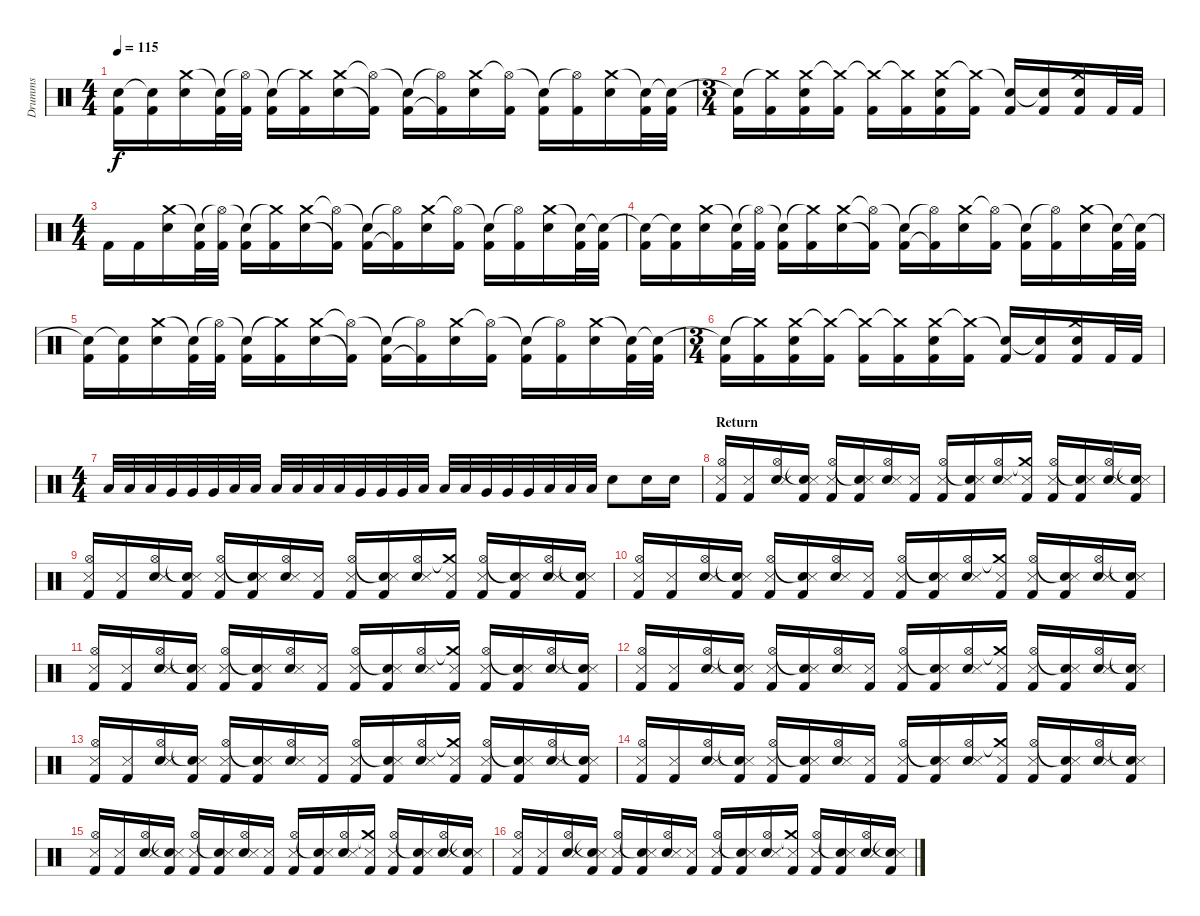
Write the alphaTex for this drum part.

\track ("Drumms" "Drumms") {instrument percussion}
\staff {score}
\articulation defaults
\ts (4 4)
\tempo 115
\clef neutral
\ks c
("Snare (hit)"{t} "Kick (hit) 2").16{dy f} ("Snare (hit)"{t} "Kick (hit) 2").16 ("Crash medium (hit)" "Electric Snare (hit)").16 ("Snare (hit)"{t} "Kick (hit) 2").32 ("Hi-Hat (open)"{t} "Kick (hit) 2").32 ("Snare (hit)"{t} "Kick (hit) 2").16 ("Crash medium (hit)"{t} "Kick (hit) 2").16 ("Crash medium (hit)" "Electric Snare (hit)").16 ("Hi-Hat (open)"{t} "Kick (hit) 2"{t}).16 ("Snare (hit)"{t} "Kick (hit) 2").16 ("Hi-Hat (open)"{t} "Kick (hit) 2"{t}).16 ("Crash medium (hit)" "Electric Snare (hit)").16 ("Hi-Hat (open)"{t} "Kick (hit) 2").16 ("Snare (hit)"{t} "Kick (hit) 2").16 ("Hi-Hat (open)"{t} "Kick (hit) 2").16 ("Crash medium (hit)" "Electric Snare (hit)").16 ("Snare (hit)"{t} "Kick (hit) 2").32 ("Snare (hit)"{t} "Kick (hit) 2").32 |
\ts (3 4)
("Snare (hit)"{t} "Kick (hit) 2").16 ("Crash medium (hit)"{t} "Kick (hit) 2").16 ("Crash medium (hit)" "Kick (hit) 2" "Electric Snare (hit)").16 ("Crash medium (hit)"{t} "Kick (hit) 2").16 ("Crash medium (hit)"{t} "Kick (hit) 2").16 ("Crash medium (hit)"{t} "Kick (hit) 2").16 ("Crash medium (hit)" "Kick (hit) 2" "Electric Snare (hit)").16 ("Crash medium (hit)"{t} "Kick (hit) 2").16 ("Snare (hit)"{t} "Kick (hit) 2").16 ("Snare (hit)"{t} "Kick (hit) 2").16 ("Crash medium (hit)" "Kick (hit) 2" "Electric Snare (hit)").16 "Kick (hit) 2".32 "Kick (hit) 2".32 |
\ts (4 4)
"Kick (hit) 2".16 "Kick (hit) 2".16 ("Crash medium (hit)" "Electric Snare (hit)").16 ("Snare (hit)"{t} "Kick (hit) 2").32 ("Hi-Hat (open)"{t} "Kick (hit) 2").32 ("Snare (hit)"{t} "Kick (hit) 2").16 ("Crash medium (hit)"{t} "Kick (hit) 2").16 ("Crash medium (hit)" "Electric Snare (hit)").16 ("Hi-Hat (open)"{t} "Kick (hit) 2"{t}).16 ("Snare (hit)"{t} "Kick (hit) 2").16 ("Hi-Hat (open)"{t} "Kick (hit) 2"{t}).16 ("Crash medium (hit)" "Electric Snare (hit)").16 ("Hi-Hat (open)"{t} "Kick (hit) 2").16 ("Snare (hit)"{t} "Kick (hit) 2").16 ("Hi-Hat (open)"{t} "Kick (hit) 2").16 ("Crash medium (hit)" "Electric Snare (hit)").16 ("Snare (hit)"{t} "Kick (hit) 2").32 ("Snare (hit)"{t} "Kick (hit) 2").32 |
("Snare (hit)"{t} "Kick (hit) 2").16 ("Snare (hit)"{t} "Kick (hit) 2").16 ("Crash medium (hit)" "Electric Snare (hit)").16 ("Snare (hit)"{t} "Kick (hit) 2").32 ("Hi-Hat (open)"{t} "Kick (hit) 2").32 ("Snare (hit)"{t} "Kick (hit) 2").16 ("Crash medium (hit)"{t} "Kick (hit) 2").16 ("Crash medium (hit)" "Electric Snare (hit)").16 ("Hi-Hat (open)"{t} "Kick (hit) 2"{t}).16 ("Snare (hit)"{t} "Kick (hit) 2").16 ("Hi-Hat (open)"{t} "Kick (hit) 2"{t}).16 ("Crash medium (hit)" "Electric Snare (hit)").16 ("Hi-Hat (open)"{t} "Kick (hit) 2").16 ("Snare (hit)"{t} "Kick (hit) 2").16 ("Hi-Hat (open)"{t} "Kick (hit) 2").16 ("Crash medium (hit)" "Electric Snare (hit)").16 ("Snare (hit)"{t} "Kick (hit) 2").32 ("Snare (hit)"{t} "Kick (hit) 2").32 |
("Snare (hit)"{t} "Kick (hit) 2").16 ("Snare (hit)"{t} "Kick (hit) 2").16 ("Crash medium (hit)" "Electric Snare (hit)").16 ("Snare (hit)"{t} "Kick (hit) 2").32 ("Hi-Hat (open)"{t} "Kick (hit) 2").32 ("Snare (hit)"{t} "Kick (hit) 2").16 ("Crash medium (hit)"{t} "Kick (hit) 2").16 ("Crash medium (hit)" "Electric Snare (hit)").16 ("Hi-Hat (open)"{t} "Kick (hit) 2"{t}).16 ("Snare (hit)"{t} "Kick (hit) 2").16 ("Hi-Hat (open)"{t} "Kick (hit) 2"{t}).16 ("Crash medium (hit)" "Electric Snare (hit)").16 ("Hi-Hat (open)"{t} "Kick (hit) 2").16 ("Snare (hit)"{t} "Kick (hit) 2").16 ("Hi-Hat (open)"{t} "Kick (hit) 2").16 ("Crash medium (hit)" "Electric Snare (hit)").16 ("Snare (hit)"{t} "Kick (hit) 2").32 ("Snare (hit)"{t} "Kick (hit) 2").32 |
\ts (3 4)
("Snare (hit)"{t} "Kick (hit) 2").16 ("Crash medium (hit)"{t} "Kick (hit) 2").16 ("Crash medium (hit)" "Kick (hit) 2" "Electric Snare (hit)").16 ("Crash medium (hit)"{t} "Kick (hit) 2").16 ("Crash medium (hit)"{t} "Kick (hit) 2").16 ("Crash medium (hit)"{t} "Kick (hit) 2").16 ("Crash medium (hit)" "Kick (hit) 2" "Electric Snare (hit)").16 ("Crash medium (hit)"{t} "Kick (hit) 2").16 ("Snare (hit)"{t} "Kick (hit) 2").16 ("Snare (hit)"{t} "Kick (hit) 2").16 ("Crash medium (hit)" "Kick (hit) 2" "Electric Snare (hit)").16 "Kick (hit) 2".32 "Kick (hit) 2".32 |
\ts (4 4)
"Low Floor Tom (hit)".32 "Low Floor Tom (hit)".32 "Low Floor Tom (hit)".32 "Very Low Tom (hit)".32 "Very Low Tom (hit)".32 "Very Low Tom (hit)".32 "Low Tom (hit)".32 "Low Tom (hit)".32 "Low Tom (hit)".32 "Low Floor Tom (hit)".32 "Low Floor Tom (hit)".32 "Low Floor Tom (hit)".32 "Very Low Tom (hit)".32 "Very Low Tom (hit)".32 "Very Low Tom (hit)".32 "Low Tom (hit)".32 "Low Tom (hit)".32 "Low Tom (hit)".32 "Very Low Tom (hit)".32 "Very Low Tom (hit)".32 "Very Low Tom (hit)".32 "Low Tom (hit)".32 "Low Tom (hit)".32 "Low Tom (hit)".32 "Electric Snare (hit)".8 "Electric Snare (hit)".16 "Electric Snare (hit)".16 |
\section ("" "Return")
("Hi-Hat (open)" "Kick (hit) 2" "Snare (side stick) 3").16 ("Kick (hit) 2" "Snare (side stick) 3").16 ("Hi-Hat (open)" "Electric Snare (hit)" "Snare (side stick) 3").16 ("Snare (hit)"{t} "Kick (hit) 2" "Snare (side stick) 3").16 ("Hi-Hat (open)" "Kick (hit) 2" "Snare (side stick) 3").16 ("Snare (hit)"{t} "Kick (hit) 2" "Snare (side stick) 3").16 ("Hi-Hat (open)" "Electric Snare (hit)" "Snare (side stick) 3").16 ("Kick (hit) 2" "Snare (side stick) 3").16 ("Hi-Hat (open)" "Kick (hit) 2" "Snare (side stick) 3").16 ("Snare (hit)"{t} "Kick (hit) 2" "Snare (side stick) 3").16 ("Hi-Hat (open)" "Electric Snare (hit)" "Snare (side stick) 3").16 ("Crash medium (hit)"{t} "Kick (hit) 2" "Snare (side stick) 3").16 ("Hi-Hat (open)" "Kick (hit) 2" "Snare (side stick) 3").16 ("Snare (hit)"{t} "Kick (hit) 2" "Snare (side stick) 3").16 ("Hi-Hat (open)" "Electric Snare (hit)" "Snare (side stick) 3").16 ("Snare (hit)"{t} "Kick (hit) 2" "Snare (side stick) 3").16 |
("Hi-Hat (open)" "Kick (hit) 2" "Snare (side stick) 3").16 ("Kick (hit) 2" "Snare (side stick) 3").16 ("Hi-Hat (open)" "Electric Snare (hit)" "Snare (side stick) 3").16 ("Snare (hit)"{t} "Kick (hit) 2" "Snare (side stick) 3").16 ("Hi-Hat (open)" "Kick (hit) 2" "Snare (side stick) 3").16 ("Snare (hit)"{t} "Kick (hit) 2" "Snare (side stick) 3").16 ("Hi-Hat (open)" "Electric Snare (hit)" "Snare (side stick) 3").16 ("Kick (hit) 2" "Snare (side stick) 3").16 ("Hi-Hat (open)" "Kick (hit) 2" "Snare (side stick) 3").16 ("Snare (hit)"{t} "Kick (hit) 2" "Snare (side stick) 3").16 ("Hi-Hat (open)" "Electric Snare (hit)" "Snare (side stick) 3").16 ("Crash medium (hit)"{t} "Kick (hit) 2" "Snare (side stick) 3").16 ("Hi-Hat (open)" "Kick (hit) 2" "Snare (side stick) 3").16 ("Snare (hit)"{t} "Kick (hit) 2" "Snare (side stick) 3").16 ("Hi-Hat (open)" "Electric Snare (hit)" "Snare (side stick) 3").16 ("Snare (hit)"{t} "Kick (hit) 2" "Snare (side stick) 3").16 |
("Hi-Hat (open)" "Kick (hit) 2" "Snare (side stick) 3").16 ("Kick (hit) 2" "Snare (side stick) 3").16 ("Hi-Hat (open)" "Electric Snare (hit)" "Snare (side stick) 3").16 ("Snare (hit)"{t} "Kick (hit) 2" "Snare (side stick) 3").16 ("Hi-Hat (open)" "Kick (hit) 2" "Snare (side stick) 3").16 ("Snare (hit)"{t} "Kick (hit) 2" "Snare (side stick) 3").16 ("Hi-Hat (open)" "Electric Snare (hit)" "Snare (side stick) 3").16 ("Kick (hit) 2" "Snare (side stick) 3").16 ("Hi-Hat (open)" "Kick (hit) 2" "Snare (side stick) 3").16 ("Snare (hit)"{t} "Kick (hit) 2" "Snare (side stick) 3").16 ("Hi-Hat (open)" "Electric Snare (hit)" "Snare (side stick) 3").16 ("Crash medium (hit)"{t} "Kick (hit) 2" "Snare (side stick) 3").16 ("Hi-Hat (open)" "Kick (hit) 2" "Snare (side stick) 3").16 ("Snare (hit)"{t} "Kick (hit) 2" "Snare (side stick) 3").16 ("Hi-Hat (open)" "Electric Snare (hit)" "Snare (side stick) 3").16 ("Snare (hit)"{t} "Kick (hit) 2" "Snare (side stick) 3").16 |
("Hi-Hat (open)" "Kick (hit) 2" "Snare (side stick) 3").16 ("Kick (hit) 2" "Snare (side stick) 3").16 ("Hi-Hat (open)" "Electric Snare (hit)" "Snare (side stick) 3").16 ("Snare (hit)"{t} "Kick (hit) 2" "Snare (side stick) 3").16 ("Hi-Hat (open)" "Kick (hit) 2" "Snare (side stick) 3").16 ("Snare (hit)"{t} "Kick (hit) 2" "Snare (side stick) 3").16 ("Hi-Hat (open)" "Electric Snare (hit)" "Snare (side stick) 3").16 ("Kick (hit) 2" "Snare (side stick) 3").16 ("Hi-Hat (open)" "Kick (hit) 2" "Snare (side stick) 3").16 ("Snare (hit)"{t} "Kick (hit) 2" "Snare (side stick) 3").16 ("Hi-Hat (open)" "Electric Snare (hit)" "Snare (side stick) 3").16 ("Crash medium (hit)"{t} "Kick (hit) 2" "Snare (side stick) 3").16 ("Hi-Hat (open)" "Kick (hit) 2" "Snare (side stick) 3").16 ("Snare (hit)"{t} "Kick (hit) 2" "Snare (side stick) 3").16 ("Hi-Hat (open)" "Electric Snare (hit)" "Snare (side stick) 3").16 ("Snare (hit)"{t} "Kick (hit) 2" "Snare (side stick) 3").16 |
("Hi-Hat (open)" "Kick (hit) 2" "Snare (side stick) 3").16 ("Kick (hit) 2" "Snare (side stick) 3").16 ("Hi-Hat (open)" "Electric Snare (hit)" "Snare (side stick) 3").16 ("Snare (hit)"{t} "Kick (hit) 2" "Snare (side stick) 3").16 ("Hi-Hat (open)" "Kick (hit) 2" "Snare (side stick) 3").16 ("Snare (hit)"{t} "Kick (hit) 2" "Snare (side stick) 3").16 ("Hi-Hat (open)" "Electric Snare (hit)" "Snare (side stick) 3").16 ("Kick (hit) 2" "Snare (side stick) 3").16 ("Hi-Hat (open)" "Kick (hit) 2" "Snare (side stick) 3").16 ("Snare (hit)"{t} "Kick (hit) 2" "Snare (side stick) 3").16 ("Hi-Hat (open)" "Electric Snare (hit)" "Snare (side stick) 3").16 ("Crash medium (hit)"{t} "Kick (hit) 2" "Snare (side stick) 3").16 ("Hi-Hat (open)" "Kick (hit) 2" "Snare (side stick) 3").16 ("Snare (hit)"{t} "Kick (hit) 2" "Snare (side stick) 3").16 ("Hi-Hat (open)" "Electric Snare (hit)" "Snare (side stick) 3").16 ("Snare (hit)"{t} "Kick (hit) 2" "Snare (side stick) 3").16 |
("Hi-Hat (open)" "Kick (hit) 2" "Snare (side stick) 3").16 ("Kick (hit) 2" "Snare (side stick) 3").16 ("Hi-Hat (open)" "Electric Snare (hit)" "Snare (side stick) 3").16 ("Snare (hit)"{t} "Kick (hit) 2" "Snare (side stick) 3").16 ("Hi-Hat (open)" "Kick (hit) 2" "Snare (side stick) 3").16 ("Snare (hit)"{t} "Kick (hit) 2" "Snare (side stick) 3").16 ("Hi-Hat (open)" "Electric Snare (hit)" "Snare (side stick) 3").16 ("Kick (hit) 2" "Snare (side stick) 3").16 ("Hi-Hat (open)" "Kick (hit) 2" "Snare (side stick) 3").16 ("Snare (hit)"{t} "Kick (hit) 2" "Snare (side stick) 3").16 ("Hi-Hat (open)" "Electric Snare (hit)" "Snare (side stick) 3").16 ("Crash medium (hit)"{t} "Kick (hit) 2" "Snare (side stick) 3").16 ("Hi-Hat (open)" "Kick (hit) 2" "Snare (side stick) 3").16 ("Snare (hit)"{t} "Kick (hit) 2" "Snare (side stick) 3").16 ("Hi-Hat (open)" "Electric Snare (hit)" "Snare (side stick) 3").16 ("Snare (hit)"{t} "Kick (hit) 2" "Snare (side stick) 3").16 |
("Hi-Hat (open)" "Kick (hit) 2" "Snare (side stick) 3").16 ("Kick (hit) 2" "Snare (side stick) 3").16 ("Hi-Hat (open)" "Electric Snare (hit)" "Snare (side stick) 3").16 ("Snare (hit)"{t} "Kick (hit) 2" "Snare (side stick) 3").16 ("Hi-Hat (open)" "Kick (hit) 2" "Snare (side stick) 3").16 ("Snare (hit)"{t} "Kick (hit) 2" "Snare (side stick) 3").16 ("Hi-Hat (open)" "Electric Snare (hit)" "Snare (side stick) 3").16 ("Kick (hit) 2" "Snare (side stick) 3").16 ("Hi-Hat (open)" "Kick (hit) 2" "Snare (side stick) 3").16 ("Snare (hit)"{t} "Kick (hit) 2" "Snare (side stick) 3").16 ("Hi-Hat (open)" "Electric Snare (hit)" "Snare (side stick) 3").16 ("Crash medium (hit)"{t} "Kick (hit) 2" "Snare (side stick) 3").16 ("Hi-Hat (open)" "Kick (hit) 2" "Snare (side stick) 3").16 ("Snare (hit)"{t} "Kick (hit) 2" "Snare (side stick) 3").16 ("Hi-Hat (open)" "Electric Snare (hit)" "Snare (side stick) 3").16 ("Snare (hit)"{t} "Kick (hit) 2" "Snare (side stick) 3").16 |
("Hi-Hat (open)" "Kick (hit) 2" "Snare (side stick) 3").16 ("Kick (hit) 2" "Snare (side stick) 3").16 ("Hi-Hat (open)" "Electric Snare (hit)" "Snare (side stick) 3").16 ("Snare (hit)"{t} "Kick (hit) 2" "Snare (side stick) 3").16 ("Hi-Hat (open)" "Kick (hit) 2" "Snare (side stick) 3").16 ("Snare (hit)"{t} "Kick (hit) 2" "Snare (side stick) 3").16 ("Hi-Hat (open)" "Electric Snare (hit)" "Snare (side stick) 3").16 ("Kick (hit) 2" "Snare (side stick) 3").16 ("Hi-Hat (open)" "Kick (hit) 2" "Snare (side stick) 3").16 ("Snare (hit)"{t} "Kick (hit) 2" "Snare (side stick) 3").16 ("Hi-Hat (open)" "Electric Snare (hit)" "Snare (side stick) 3").16 ("Crash medium (hit)"{t} "Kick (hit) 2" "Snare (side stick) 3").16 ("Hi-Hat (open)" "Kick (hit) 2" "Snare (side stick) 3").16 ("Snare (hit)"{t} "Kick (hit) 2" "Snare (side stick) 3").16 ("Hi-Hat (open)" "Electric Snare (hit)" "Snare (side stick) 3").16 ("Snare (hit)"{t} "Kick (hit) 2" "Snare (side stick) 3").16 |
("Hi-Hat (open)" "Kick (hit) 2" "Snare (side stick) 3").16 ("Kick (hit) 2" "Snare (side stick) 3").16 ("Hi-Hat (open)" "Electric Snare (hit)" "Snare (side stick) 3").16 ("Snare (hit)"{t} "Kick (hit) 2" "Snare (side stick) 3").16 ("Hi-Hat (open)" "Kick (hit) 2" "Snare (side stick) 3").16 ("Snare (hit)"{t} "Kick (hit) 2" "Snare (side stick) 3").16 ("Hi-Hat (open)" "Electric Snare (hit)" "Snare (side stick) 3").16 ("Kick (hit) 2" "Snare (side stick) 3").16 ("Hi-Hat (open)" "Kick (hit) 2" "Snare (side stick) 3").16 ("Snare (hit)"{t} "Kick (hit) 2" "Snare (side stick) 3").16 ("Hi-Hat (open)" "Electric Snare (hit)" "Snare (side stick) 3").16 ("Crash medium (hit)"{t} "Kick (hit) 2" "Snare (side stick) 3").16 ("Hi-Hat (open)" "Kick (hit) 2" "Snare (side stick) 3").16 ("Snare (hit)"{t} "Kick (hit) 2" "Snare (side stick) 3").16 ("Hi-Hat (open)" "Electric Snare (hit)" "Snare (side stick) 3").16 ("Snare (hit)"{t} "Kick (hit) 2" "Snare (side stick) 3").16
